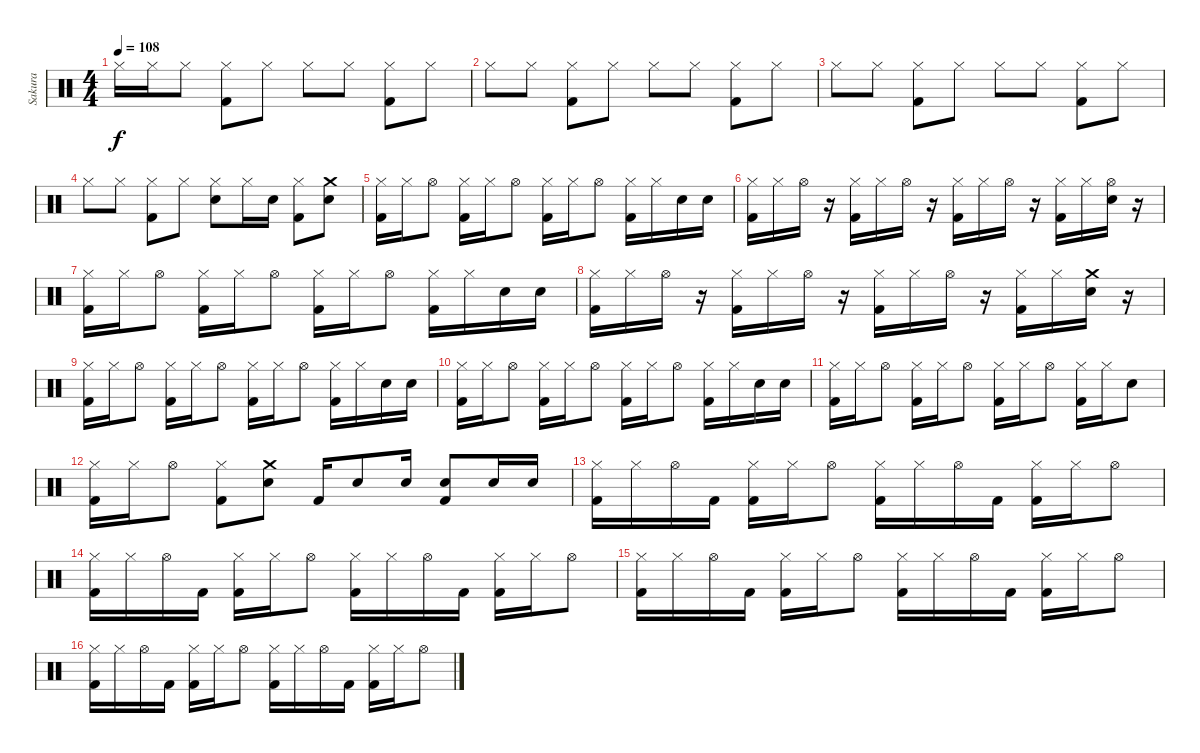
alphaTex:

\track ("Sakura" "Sakura") {instrument percussion}
\staff {score}
\articulation defaults
\ts (4 4)
\tempo 108
\clef neutral
\ks c "Hi-Hat (closed)".16{dy f} "Hi-Hat (closed)".16 "Hi-Hat (closed)".8
("Hi-Hat (closed)" "Kick (hit) 2").8 "Hi-Hat (closed)".8 "Hi-Hat (closed)".8 "Hi-Hat (closed)".8 ("Hi-Hat (closed)" "Kick (hit) 2").8 "Hi-Hat (closed)".8 |
"Hi-Hat (closed)".8 "Hi-Hat (closed)".8 ("Hi-Hat (closed)" "Kick (hit) 2").8 "Hi-Hat (closed)".8 "Hi-Hat (closed)".8 "Hi-Hat (closed)".8 ("Hi-Hat (closed)" "Kick (hit) 2").8 "Hi-Hat (closed)".8 |
"Hi-Hat (closed)".8 "Hi-Hat (closed)".8 ("Hi-Hat (closed)" "Kick (hit) 2").8 "Hi-Hat (closed)".8 "Hi-Hat (closed)".8 "Hi-Hat (closed)".8 ("Hi-Hat (closed)" "Kick (hit) 2").8 "Hi-Hat (closed)".8 |
"Hi-Hat (closed)".8 "Hi-Hat (closed)".8 ("Hi-Hat (closed)" "Kick (hit) 2").8 "Hi-Hat (closed)".8 ("Hi-Hat (closed)" "Snare (hit) 2").8 "Hi-Hat (closed)".16 "Snare (hit) 2".16 ("Hi-Hat (closed)" "Kick (hit) 2").8 ("Crash medium (hit)" "Snare (hit) 2").8 |
("Hi-Hat (closed)" "Kick (hit) 2").16 "Hi-Hat (closed)".16 "Hi-Hat (open)".8 ("Hi-Hat (closed)" "Kick (hit) 2").16 "Hi-Hat (closed)".16 "Hi-Hat (open)".8 ("Hi-Hat (closed)" "Kick (hit) 2").16 "Hi-Hat (closed)".16 "Hi-Hat (open)".8 ("Hi-Hat (closed)" "Kick (hit) 2").16 "Hi-Hat (closed)".16 "Snare (hit) 2".16 "Snare (hit) 2".16 |
("Hi-Hat (closed)" "Kick (hit) 2").16 "Hi-Hat (closed)".16 "Hi-Hat (open)".16 r.16 ("Hi-Hat (closed)" "Kick (hit) 2").16 "Hi-Hat (closed)".16 "Hi-Hat (open)".16 r.16 ("Hi-Hat (closed)" "Kick (hit) 2").16 "Hi-Hat (closed)".16 "Hi-Hat (open)".16 r.16 ("Hi-Hat (closed)" "Kick (hit) 2").16 "Hi-Hat (closed)".16 ("Hi-Hat (open)" "Snare (hit) 2").16 r.16 |
("Hi-Hat (closed)" "Kick (hit) 2").16 "Hi-Hat (closed)".16 "Hi-Hat (open)".8 ("Hi-Hat (closed)" "Kick (hit) 2").16 "Hi-Hat (closed)".16 "Hi-Hat (open)".8 ("Hi-Hat (closed)" "Kick (hit) 2").16 "Hi-Hat (closed)".16 "Hi-Hat (open)".8 ("Hi-Hat (closed)" "Kick (hit) 2").16 "Hi-Hat (closed)".16 "Snare (hit) 2".16 "Snare (hit) 2".16 |
("Hi-Hat (closed)" "Kick (hit) 2").16 "Hi-Hat (closed)".16 "Hi-Hat (open)".16 r.16 ("Hi-Hat (closed)" "Kick (hit) 2").16 "Hi-Hat (closed)".16 "Hi-Hat (open)".16 r.16 ("Hi-Hat (closed)" "Kick (hit) 2").16 "Hi-Hat (closed)".16 "Hi-Hat (open)".16 r.16 ("Hi-Hat (closed)" "Kick (hit) 2").16 "Hi-Hat (closed)".16 ("Crash medium (hit)" "Snare (hit) 2").16 r.16 |
("Hi-Hat (closed)" "Kick (hit) 2").16 "Hi-Hat (closed)".16 "Hi-Hat (open)".8 ("Hi-Hat (closed)" "Kick (hit) 2").16 "Hi-Hat (closed)".16 "Hi-Hat (open)".8 ("Hi-Hat (closed)" "Kick (hit) 2").16 "Hi-Hat (closed)".16 "Hi-Hat (open)".8 ("Hi-Hat (closed)" "Kick (hit) 2").16 "Hi-Hat (closed)".16 "Snare (hit) 2".16 "Snare (hit) 2".16 |
("Hi-Hat (closed)" "Kick (hit) 2").16 "Hi-Hat (closed)".16 "Hi-Hat (open)".8 ("Hi-Hat (closed)" "Kick (hit) 2").16 "Hi-Hat (closed)".16 "Hi-Hat (open)".8 ("Hi-Hat (closed)" "Kick (hit) 2").16 "Hi-Hat (closed)".16 "Hi-Hat (open)".8 ("Hi-Hat (closed)" "Kick (hit) 2").16 "Hi-Hat (closed)".16 "Snare (hit) 2".16 "Snare (hit) 2".16 |
("Hi-Hat (closed)" "Kick (hit) 2").16 "Hi-Hat (closed)".16 "Hi-Hat (open)".8 ("Hi-Hat (closed)" "Kick (hit) 2").16 "Hi-Hat (closed)".16 "Hi-Hat (open)".8 ("Hi-Hat (closed)" "Kick (hit) 2").16 "Hi-Hat (closed)".16 "Hi-Hat (open)".8 ("Hi-Hat (closed)" "Kick (hit) 2").16 "Hi-Hat (closed)".16 "Snare (hit) 2".8 |
("Hi-Hat (closed)" "Kick (hit) 2").16 "Hi-Hat (closed)".16 "Hi-Hat (open)".8 ("Hi-Hat (closed)" "Kick (hit) 2").8 ("Crash medium (hit)" "Snare (hit) 2").8 "Kick (hit) 2".16 "Snare (hit) 2".8 "Snare (hit) 2".16 ("Snare (hit) 2" "Kick (hit) 2").8 "Snare (hit) 2".16 "Snare (hit) 2".16 |
("Hi-Hat (closed)" "Kick (hit) 2").16 "Hi-Hat (closed)".16 "Hi-Hat (open)".16 "Kick (hit) 2".16 ("Hi-Hat (closed)" "Kick (hit) 2").16 "Hi-Hat (closed)".16 "Hi-Hat (open)".8 ("Hi-Hat (closed)" "Kick (hit) 2").16 "Hi-Hat (closed)".16 "Hi-Hat (open)".16 "Kick (hit) 2".16 ("Hi-Hat (closed)" "Kick (hit) 2").16 "Hi-Hat (closed)".16 "Hi-Hat (open)".8 |
("Hi-Hat (closed)" "Kick (hit) 2").16 "Hi-Hat (closed)".16 "Hi-Hat (open)".16 "Kick (hit) 2".16 ("Hi-Hat (closed)" "Kick (hit) 2").16 "Hi-Hat (closed)".16 "Hi-Hat (open)".8 ("Hi-Hat (closed)" "Kick (hit) 2").16 "Hi-Hat (closed)".16 "Hi-Hat (open)".16 "Kick (hit) 2".16 ("Hi-Hat (closed)" "Kick (hit) 2").16 "Hi-Hat (closed)".16 "Hi-Hat (open)".8 |
("Hi-Hat (closed)" "Kick (hit) 2").16 "Hi-Hat (closed)".16 "Hi-Hat (open)".16 "Kick (hit) 2".16 ("Hi-Hat (closed)" "Kick (hit) 2").16 "Hi-Hat (closed)".16 "Hi-Hat (open)".8 ("Hi-Hat (closed)" "Kick (hit) 2").16 "Hi-Hat (closed)".16 "Hi-Hat (open)".16 "Kick (hit) 2".16 ("Hi-Hat (closed)" "Kick (hit) 2").16 "Hi-Hat (closed)".16 "Hi-Hat (open)".8 |
("Hi-Hat (closed)" "Kick (hit) 2").16 "Hi-Hat (closed)".16 "Hi-Hat (open)".16 "Kick (hit) 2".16 ("Hi-Hat (closed)" "Kick (hit) 2").16 "Hi-Hat (closed)".16 "Hi-Hat (open)".8 ("Hi-Hat (closed)" "Kick (hit) 2").16 "Hi-Hat (closed)".16 "Hi-Hat (open)".16 "Kick (hit) 2".16 ("Hi-Hat (closed)" "Kick (hit) 2").16 "Hi-Hat (closed)".16 "Hi-Hat (open)".8
